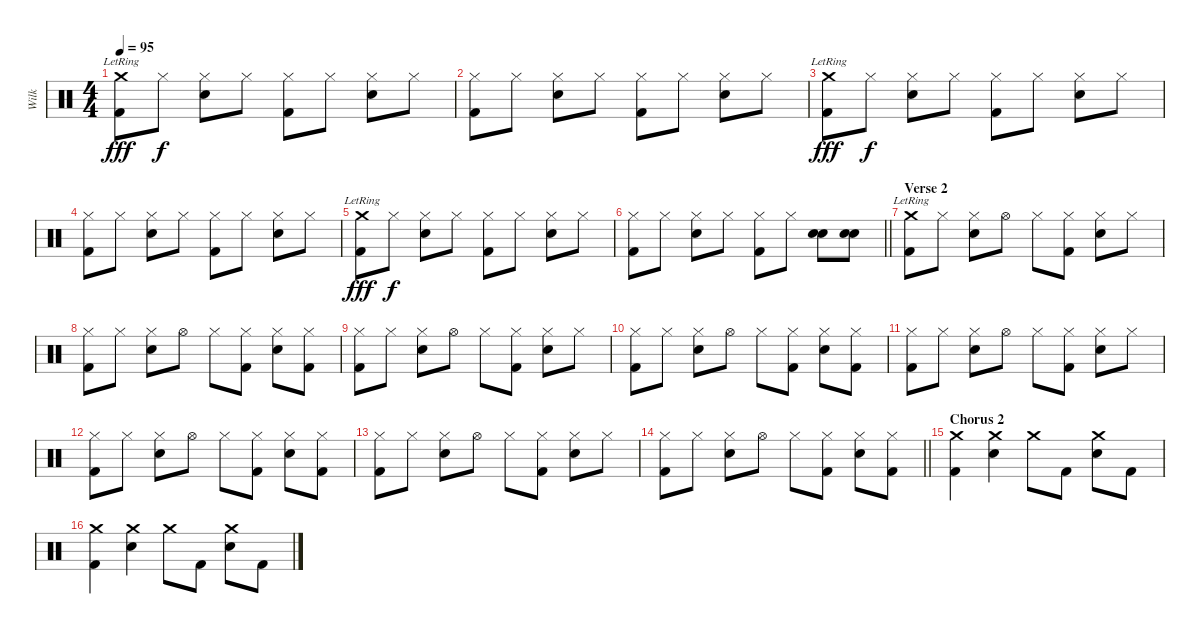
\track ("Wilk" "Wilk") {instrument percussion}
\staff {score}
\articulation defaults
\ts (4 4)
\tempo 95
\clef neutral
\ks c
("Crash medium (hit)"{lr} "Kick (hit) 2").8{dy fff} "Hi-Hat (closed)".8{dy f} ("Hi-Hat (closed)" "Snare (hit) 2").8 "Hi-Hat (closed)".8 ("Hi-Hat (closed)" "Kick (hit) 2").8 "Hi-Hat (closed)".8 ("Hi-Hat (closed)" "Snare (hit) 2").8 "Hi-Hat (closed)".8 |
("Hi-Hat (closed)" "Kick (hit) 2").8 "Hi-Hat (closed)".8 ("Hi-Hat (closed)" "Snare (hit) 2").8 "Hi-Hat (closed)".8 ("Hi-Hat (closed)" "Kick (hit) 2").8 "Hi-Hat (closed)".8 ("Hi-Hat (closed)" "Snare (hit) 2").8 "Hi-Hat (closed)".8 |
("Crash medium (hit)"{lr} "Kick (hit) 2").8{dy fff} "Hi-Hat (closed)".8{dy f} ("Hi-Hat (closed)" "Snare (hit) 2").8 "Hi-Hat (closed)".8 ("Hi-Hat (closed)" "Kick (hit) 2").8 "Hi-Hat (closed)".8 ("Hi-Hat (closed)" "Snare (hit) 2").8 "Hi-Hat (closed)".8 |
("Hi-Hat (closed)" "Kick (hit) 2").8 "Hi-Hat (closed)".8 ("Hi-Hat (closed)" "Snare (hit) 2").8 "Hi-Hat (closed)".8 ("Hi-Hat (closed)" "Kick (hit) 2").8 "Hi-Hat (closed)".8 ("Hi-Hat (closed)" "Snare (hit) 2").8 "Hi-Hat (closed)".8 |
("Crash medium (hit)"{lr} "Kick (hit) 2").8{dy fff} "Hi-Hat (closed)".8{dy f} ("Hi-Hat (closed)" "Electric Snare (hit)").8 "Hi-Hat (closed)".8 ("Hi-Hat (closed)" "Kick (hit) 2").8 "Hi-Hat (closed)".8 ("Hi-Hat (closed)" "Snare (hit) 2").8 "Hi-Hat (closed)".8 |
\barLineRight lightlight
("Hi-Hat (closed)" "Kick (hit) 2").8 "Hi-Hat (closed)".8 ("Hi-Hat (closed)" "Snare (hit) 2").8 "Hi-Hat (closed)".8 ("Hi-Hat (closed)" "Kick (hit) 2").8 "Hi-Hat (closed)".8 ("Snare (hit) 2" "Electric Snare (hit)").8 ("Snare (hit) 2" "Electric Snare (hit)").8 |
\section ("" "Verse 2")
("Crash medium (hit)"{lr} "Kick (hit) 2").8 "Hi-Hat (closed)".8 ("Hi-Hat (closed)" "Snare (hit) 2").8 "Hi-Hat (open)".8 "Hi-Hat (closed)".8 ("Hi-Hat (closed)" "Kick (hit) 2").8 ("Hi-Hat (closed)" "Snare (hit) 2").8 "Hi-Hat (closed)".8 |
("Hi-Hat (closed)" "Kick (hit) 2").8 "Hi-Hat (closed)".8 ("Hi-Hat (closed)" "Snare (hit) 2").8 "Hi-Hat (open)".8 "Hi-Hat (closed)".8 ("Hi-Hat (closed)" "Kick (hit) 2").8 ("Hi-Hat (closed)" "Snare (hit) 2").8 ("Hi-Hat (closed)" "Kick (hit) 2").8 |
("Hi-Hat (closed)" "Kick (hit) 2").8 "Hi-Hat (closed)".8 ("Hi-Hat (closed)" "Snare (hit) 2").8 "Hi-Hat (open)".8 "Hi-Hat (closed)".8 ("Hi-Hat (closed)" "Kick (hit) 2").8 ("Hi-Hat (closed)" "Snare (hit) 2").8 "Hi-Hat (closed)".8 |
("Hi-Hat (closed)" "Kick (hit) 2").8 "Hi-Hat (closed)".8 ("Hi-Hat (closed)" "Snare (hit) 2").8 "Hi-Hat (open)".8 "Hi-Hat (closed)".8 ("Hi-Hat (closed)" "Kick (hit) 2").8 ("Hi-Hat (closed)" "Snare (hit) 2").8 ("Hi-Hat (closed)" "Kick (hit) 2").8 |
("Hi-Hat (closed)" "Kick (hit) 2").8 "Hi-Hat (closed)".8 ("Hi-Hat (closed)" "Snare (hit) 2").8 "Hi-Hat (open)".8 "Hi-Hat (closed)".8 ("Hi-Hat (closed)" "Kick (hit) 2").8 ("Hi-Hat (closed)" "Snare (hit) 2").8 "Hi-Hat (closed)".8 |
("Hi-Hat (closed)" "Kick (hit) 2").8 "Hi-Hat (closed)".8 ("Hi-Hat (closed)" "Snare (hit) 2").8 "Hi-Hat (open)".8 "Hi-Hat (closed)".8 ("Hi-Hat (closed)" "Kick (hit) 2").8 ("Hi-Hat (closed)" "Snare (hit) 2").8 ("Hi-Hat (closed)" "Kick (hit) 2").8 |
("Hi-Hat (closed)" "Kick (hit) 2").8 "Hi-Hat (closed)".8 ("Hi-Hat (closed)" "Snare (hit) 2").8 "Hi-Hat (open)".8 "Hi-Hat (closed)".8 ("Hi-Hat (closed)" "Kick (hit) 2").8 ("Hi-Hat (closed)" "Snare (hit) 2").8 "Hi-Hat (closed)".8 |
\barLineRight lightlight
("Hi-Hat (closed)" "Kick (hit) 2").8 "Hi-Hat (closed)".8 ("Hi-Hat (closed)" "Snare (hit) 2").8 "Hi-Hat (open)".8 "Hi-Hat (closed)".8 ("Hi-Hat (closed)" "Kick (hit) 2").8 ("Hi-Hat (closed)" "Snare (hit) 2").8 ("Hi-Hat (closed)" "Kick (hit) 2").8 |
\section ("" "Chorus 2")
("Crash medium (hit)" "Kick (hit) 2").4 ("Crash medium (hit)" "Snare (hit) 2").4 "Crash medium (hit)".8 "Kick (hit) 2".8 ("Crash medium (hit)" "Snare (hit) 2").8 "Kick (hit) 2".8 |
("Crash medium (hit)" "Kick (hit) 2").4 ("Crash medium (hit)" "Snare (hit) 2").4 "Crash medium (hit)".8 "Kick (hit) 2".8 ("Crash medium (hit)" "Snare (hit) 2").8 "Kick (hit) 2".8
